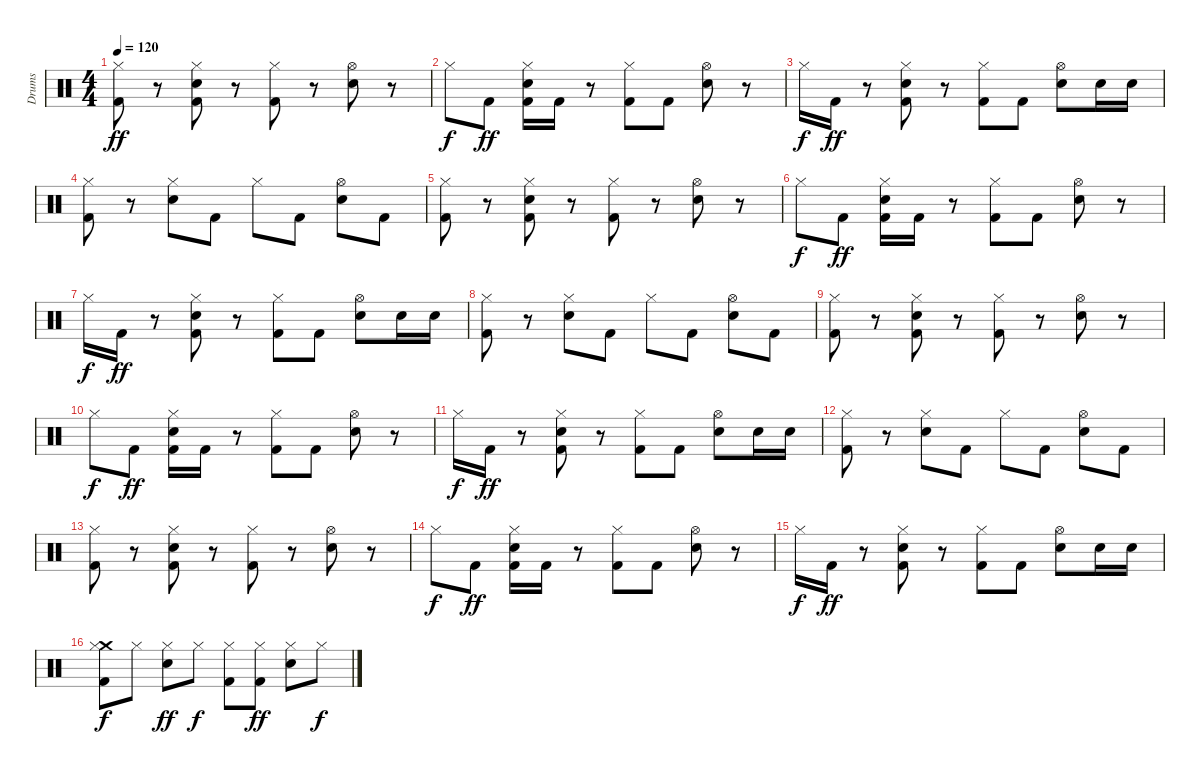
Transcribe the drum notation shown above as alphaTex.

\track ("Drums" "Drums") {instrument percussion}
\staff {score}
\articulation defaults
\ts (4 4)
\tempo 120
\clef neutral
\ks c
("Hi-Hat (closed)" "Kick (hit) 2").8{dy ff} r.8 ("Hi-Hat (closed)" "Electric Snare (hit)" "Kick (hit) 2").8 r.8 ("Hi-Hat (closed)" "Kick (hit) 2").8 r.8 ("Hi-Hat (open)" "Electric Snare (hit)").8 r.8 |
"Hi-Hat (closed)".8{dy f} "Kick (hit) 2".8{dy ff} ("Hi-Hat (closed)" "Electric Snare (hit)" "Kick (hit) 2").16 "Kick (hit) 2".16 r.8 ("Hi-Hat (closed)" "Kick (hit) 2").8 "Kick (hit) 2".8 ("Hi-Hat (open)" "Electric Snare (hit)").8 r.8 |
"Hi-Hat (closed)".16{dy f} "Kick (hit) 2".16{dy ff} r.8 ("Hi-Hat (closed)" "Electric Snare (hit)" "Kick (hit) 2").8 r.8 ("Hi-Hat (closed)" "Kick (hit) 2").8 "Kick (hit) 2".8 ("Hi-Hat (open)" "Electric Snare (hit)").8 "Electric Snare (hit)".16 "Electric Snare (hit)".16 |
("Hi-Hat (closed)" "Kick (hit) 2").8 r.8 ("Hi-Hat (closed)" "Electric Snare (hit)").8 "Kick (hit) 2".8 "Hi-Hat (closed)".8 "Kick (hit) 2".8 ("Hi-Hat (open)" "Electric Snare (hit)").8 "Kick (hit) 2".8 |
("Hi-Hat (closed)" "Kick (hit) 2").8 r.8 ("Hi-Hat (closed)" "Electric Snare (hit)" "Kick (hit) 2").8 r.8 ("Hi-Hat (closed)" "Kick (hit) 2").8 r.8 ("Hi-Hat (open)" "Electric Snare (hit)").8 r.8 |
"Hi-Hat (closed)".8{dy f} "Kick (hit) 2".8{dy ff} ("Hi-Hat (closed)" "Electric Snare (hit)" "Kick (hit) 2").16 "Kick (hit) 2".16 r.8 ("Hi-Hat (closed)" "Kick (hit) 2").8 "Kick (hit) 2".8 ("Hi-Hat (open)" "Electric Snare (hit)").8 r.8 |
"Hi-Hat (closed)".16{dy f} "Kick (hit) 2".16{dy ff} r.8 ("Hi-Hat (closed)" "Electric Snare (hit)" "Kick (hit) 2").8 r.8 ("Hi-Hat (closed)" "Kick (hit) 2").8 "Kick (hit) 2".8 ("Hi-Hat (open)" "Electric Snare (hit)").8 "Electric Snare (hit)".16 "Electric Snare (hit)".16 |
("Hi-Hat (closed)" "Kick (hit) 2").8 r.8 ("Hi-Hat (closed)" "Electric Snare (hit)").8 "Kick (hit) 2".8 "Hi-Hat (closed)".8 "Kick (hit) 2".8 ("Hi-Hat (open)" "Electric Snare (hit)").8 "Kick (hit) 2".8 |
("Hi-Hat (closed)" "Kick (hit) 2").8 r.8 ("Hi-Hat (closed)" "Electric Snare (hit)" "Kick (hit) 2").8 r.8 ("Hi-Hat (closed)" "Kick (hit) 2").8 r.8 ("Hi-Hat (open)" "Electric Snare (hit)").8 r.8 |
"Hi-Hat (closed)".8{dy f} "Kick (hit) 2".8{dy ff} ("Hi-Hat (closed)" "Electric Snare (hit)" "Kick (hit) 2").16 "Kick (hit) 2".16 r.8 ("Hi-Hat (closed)" "Kick (hit) 2").8 "Kick (hit) 2".8 ("Hi-Hat (open)" "Electric Snare (hit)").8 r.8 |
"Hi-Hat (closed)".16{dy f} "Kick (hit) 2".16{dy ff} r.8 ("Hi-Hat (closed)" "Electric Snare (hit)" "Kick (hit) 2").8 r.8 ("Hi-Hat (closed)" "Kick (hit) 2").8 "Kick (hit) 2".8 ("Hi-Hat (open)" "Electric Snare (hit)").8 "Electric Snare (hit)".16 "Electric Snare (hit)".16 |
("Hi-Hat (closed)" "Kick (hit) 2").8 r.8 ("Hi-Hat (closed)" "Electric Snare (hit)").8 "Kick (hit) 2".8 "Hi-Hat (closed)".8 "Kick (hit) 2".8 ("Hi-Hat (open)" "Electric Snare (hit)").8 "Kick (hit) 2".8 |
("Hi-Hat (closed)" "Kick (hit) 2").8 r.8 ("Hi-Hat (closed)" "Electric Snare (hit)" "Kick (hit) 2").8 r.8 ("Hi-Hat (closed)" "Kick (hit) 2").8 r.8 ("Hi-Hat (open)" "Electric Snare (hit)").8 r.8 |
"Hi-Hat (closed)".8{dy f} "Kick (hit) 2".8{dy ff} ("Hi-Hat (closed)" "Electric Snare (hit)" "Kick (hit) 2").16 "Kick (hit) 2".16 r.8 ("Hi-Hat (closed)" "Kick (hit) 2").8 "Kick (hit) 2".8 ("Hi-Hat (open)" "Electric Snare (hit)").8 r.8 |
"Hi-Hat (closed)".16{dy f} "Kick (hit) 2".16{dy ff} r.8 ("Hi-Hat (closed)" "Electric Snare (hit)" "Kick (hit) 2").8 r.8 ("Hi-Hat (closed)" "Kick (hit) 2").8 "Kick (hit) 2".8 ("Hi-Hat (open)" "Electric Snare (hit)").8 "Electric Snare (hit)".16 "Electric Snare (hit)".16 |
("Crash medium (hit)" "Hi-Hat (closed)" "Kick (hit) 2").8{dy f} "Hi-Hat (closed)".8 ("Hi-Hat (closed)" "Electric Snare (hit)").8{dy ff} "Hi-Hat (closed)".8{dy f} ("Hi-Hat (closed)" "Kick (hit) 2").8 ("Hi-Hat (closed)" "Kick (hit) 2").8{dy ff} ("Hi-Hat (closed)" "Electric Snare (hit)").8 "Hi-Hat (closed)".8{dy f}
